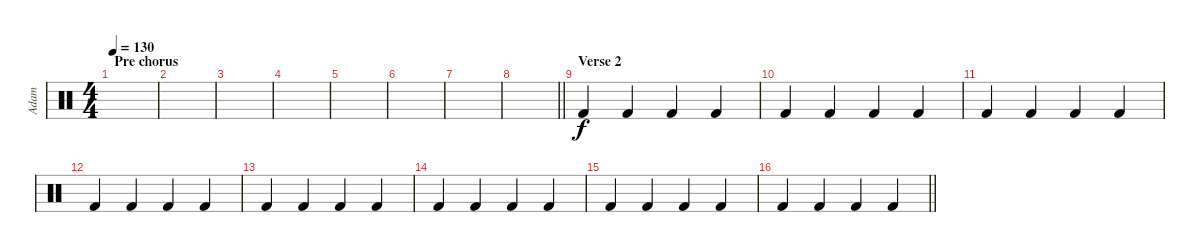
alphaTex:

\track ("Adam" "Adam") {instrument percussion}
\staff {score}
\articulation defaults
\ts (4 4)
\section ("" "Pre chorus")
\tempo 130
\clef neutral
\ks c
|
|
|
|
|
|
|
\barLineRight lightlight
|
\section ("" "Verse 2")
"Kick (hit) 2".4 "Kick (hit) 2".4 "Kick (hit) 2".4 "Kick (hit) 2".4 |
"Kick (hit) 2".4 "Kick (hit) 2".4 "Kick (hit) 2".4 "Kick (hit) 2".4 |
"Kick (hit) 2".4 "Kick (hit) 2".4 "Kick (hit) 2".4 "Kick (hit) 2".4 |
"Kick (hit) 2".4 "Kick (hit) 2".4 "Kick (hit) 2".4 "Kick (hit) 2".4 |
"Kick (hit) 2".4 "Kick (hit) 2".4 "Kick (hit) 2".4 "Kick (hit) 2".4 |
"Kick (hit) 2".4 "Kick (hit) 2".4 "Kick (hit) 2".4 "Kick (hit) 2".4 |
"Kick (hit) 2".4 "Kick (hit) 2".4 "Kick (hit) 2".4 "Kick (hit) 2".4 |
\barLineRight lightlight "Kick (hit) 2".4 "Kick (hit) 2".4 "Kick (hit) 2".4 "Kick (hit) 2".4
